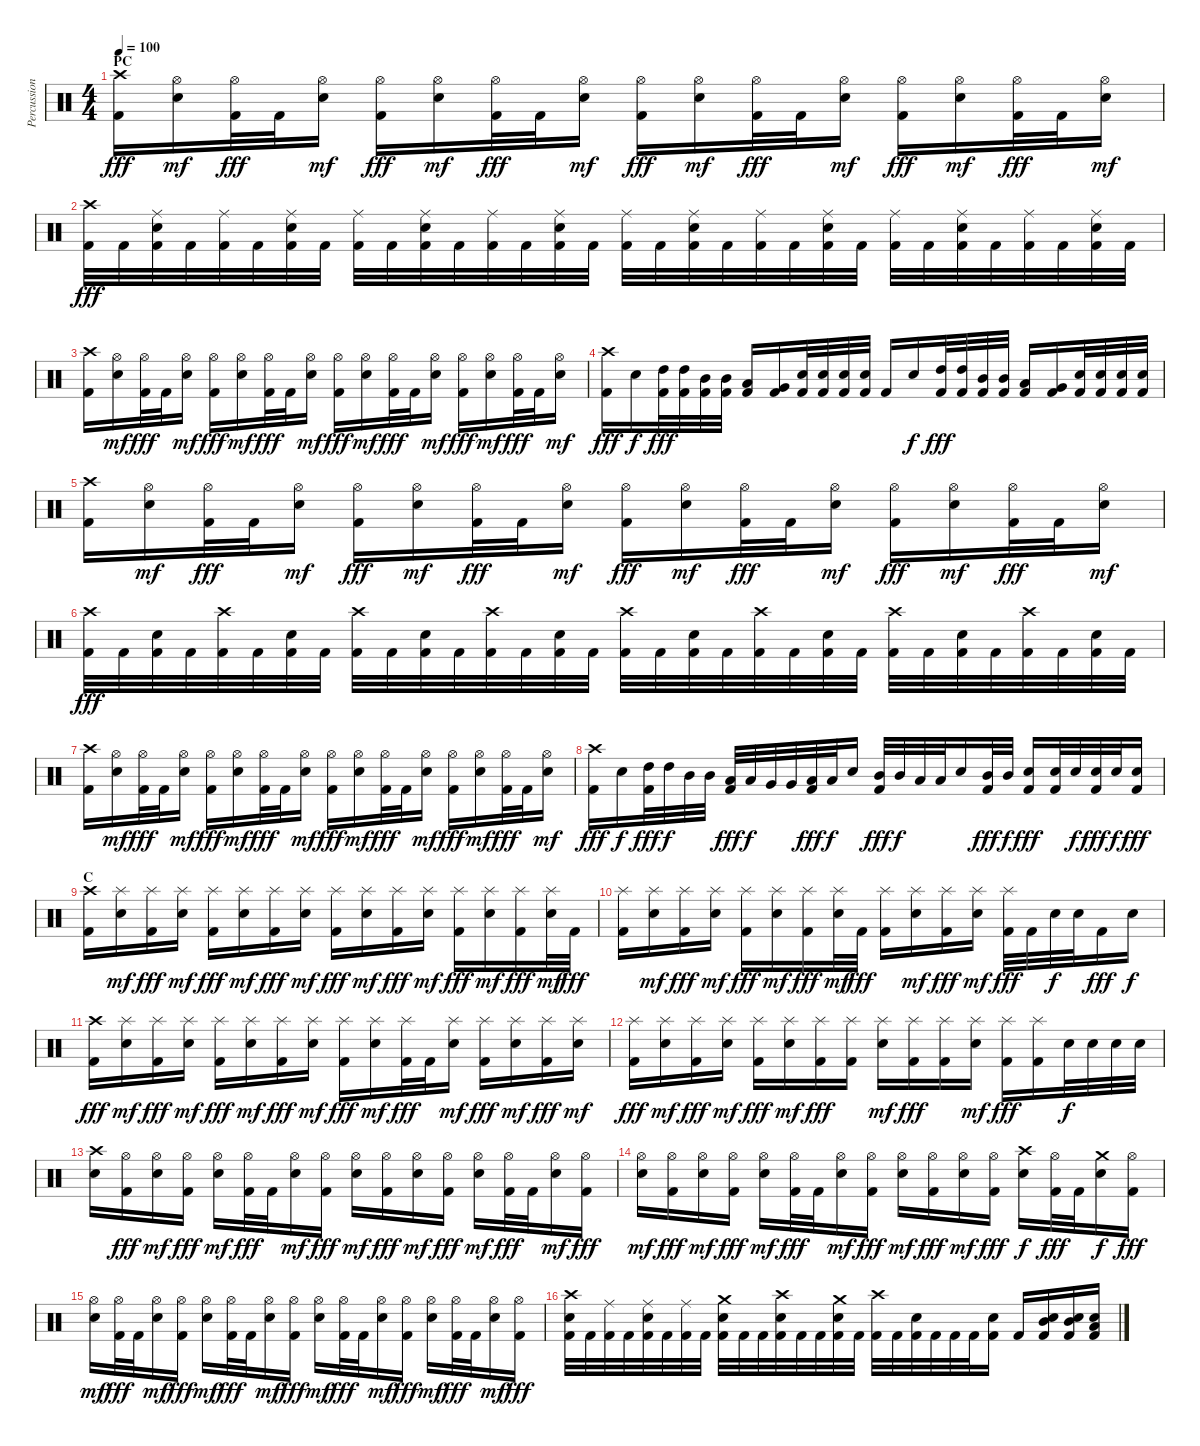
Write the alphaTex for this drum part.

\track ("Percussion" "Percussion") {instrument percussion}
\staff {score}
\articulation defaults
\ts (4 4)
\section ("" "PC")
\tempo 100
\clef neutral
\ks c
("Crash high (hit)" "Kick (hit) 2").16{dy fff} ("Hi-Hat (open)" "Snare (hit) 2").16{dy mf} ("Hi-Hat (open)" "Kick (hit) 2").32{dy fff} "Kick (hit) 2".32 ("Hi-Hat (open)" "Snare (hit) 2").16{dy mf} ("Hi-Hat (open)" "Kick (hit) 2").16{dy fff} ("Hi-Hat (open)" "Snare (hit) 2").16{dy mf} ("Hi-Hat (open)" "Kick (hit) 2").32{dy fff} "Kick (hit) 2".32 ("Hi-Hat (open)" "Snare (hit) 2").16{dy mf} ("Hi-Hat (open)" "Kick (hit) 2").16{dy fff} ("Hi-Hat (open)" "Snare (hit) 2").16{dy mf} ("Hi-Hat (open)" "Kick (hit) 2").32{dy fff} "Kick (hit) 2".32 ("Hi-Hat (open)" "Snare (hit) 2").16{dy mf} ("Hi-Hat (open)" "Kick (hit) 2").16{dy fff} ("Hi-Hat (open)" "Snare (hit) 2").16{dy mf} ("Hi-Hat (open)" "Kick (hit) 2").32{dy fff} "Kick (hit) 2".32 ("Hi-Hat (open)" "Snare (hit) 2").16{dy mf} |
("Crash high (hit)" "Kick (hit) 2").32{dy fff} "Kick (hit) 2".32 ("Ride (middle)" "Snare (hit) 2" "Kick (hit) 2").32 "Kick (hit) 2".32 ("Ride (middle)" "Kick (hit) 2").32 "Kick (hit) 2".32 ("Ride (middle)" "Snare (hit) 2" "Kick (hit) 2").32 "Kick (hit) 2".32 ("Ride (middle)" "Kick (hit) 2").32 "Kick (hit) 2".32 ("Ride (middle)" "Snare (hit) 2" "Kick (hit) 2").32 "Kick (hit) 2".32 ("Ride (middle)" "Kick (hit) 2").32 "Kick (hit) 2".32 ("Ride (middle)" "Snare (hit) 2" "Kick (hit) 2").32 "Kick (hit) 2".32 ("Ride (middle)" "Kick (hit) 2").32 "Kick (hit) 2".32 ("Ride (middle)" "Snare (hit) 2" "Kick (hit) 2").32 "Kick (hit) 2".32 ("Ride (middle)" "Kick (hit) 2").32 "Kick (hit) 2".32 ("Ride (middle)" "Snare (hit) 2" "Kick (hit) 2").32 "Kick (hit) 2".32 ("Ride (middle)" "Kick (hit) 2").32 "Kick (hit) 2".32 ("Ride (middle)" "Snare (hit) 2" "Kick (hit) 2").32 "Kick (hit) 2".32 ("Ride (middle)" "Kick (hit) 2").32 "Kick (hit) 2".32 ("Ride (middle)" "Snare (hit) 2" "Kick (hit) 2").32 "Kick (hit) 2".32 |
("Crash high (hit)" "Kick (hit) 2").16 ("Hi-Hat (open)" "Snare (hit) 2").16{dy mf} ("Hi-Hat (open)" "Kick (hit) 2").32{dy fff} "Kick (hit) 2".32 ("Hi-Hat (open)" "Snare (hit) 2").16{dy mf} ("Hi-Hat (open)" "Kick (hit) 2").16{dy fff} ("Hi-Hat (open)" "Snare (hit) 2").16{dy mf} ("Hi-Hat (open)" "Kick (hit) 2").32{dy fff} "Kick (hit) 2".32 ("Hi-Hat (open)" "Snare (hit) 2").16{dy mf} ("Hi-Hat (open)" "Kick (hit) 2").16{dy fff} ("Hi-Hat (open)" "Snare (hit) 2").16{dy mf} ("Hi-Hat (open)" "Kick (hit) 2").32{dy fff} "Kick (hit) 2".32 ("Hi-Hat (open)" "Snare (hit) 2").16{dy mf} ("Hi-Hat (open)" "Kick (hit) 2").16{dy fff} ("Hi-Hat (open)" "Snare (hit) 2").16{dy mf} ("Hi-Hat (open)" "Kick (hit) 2").32{dy fff} "Kick (hit) 2".32 ("Hi-Hat (open)" "Snare (hit) 2").16{dy mf} |
("Crash high (hit)" "Kick (hit) 2").16{dy fff} "Snare (hit) 2".16{dy f} ("High Tom (hit)" "Kick (hit) 2").32{dy fff} ("High Tom (hit)" "Kick (hit) 2").32 ("Mid Tom (hit)" "Kick (hit) 2").32 ("Mid Tom (hit)" "Kick (hit) 2").32 ("Low Tom (hit)" "Kick (hit) 2").16 ("Very Low Tom (hit)" "Kick (hit) 2").16 ("Snare (hit) 2" "Kick (hit) 2").32 ("Snare (hit) 2" "Kick (hit) 2").32 ("Snare (hit) 2" "Kick (hit) 2").32 ("Snare (hit) 2" "Kick (hit) 2").32 "Kick (hit) 2".16 "Snare (hit) 2".16{dy f} ("High Tom (hit)" "Kick (hit) 2").32{dy fff} ("High Tom (hit)" "Kick (hit) 2").32 ("Mid Tom (hit)" "Kick (hit) 2").32 ("Mid Tom (hit)" "Kick (hit) 2").32 ("Low Tom (hit)" "Kick (hit) 2").16 ("Very Low Tom (hit)" "Kick (hit) 2").16 ("Snare (hit) 2" "Kick (hit) 2").32 ("Snare (hit) 2" "Kick (hit) 2").32 ("Snare (hit) 2" "Kick (hit) 2").32 ("Snare (hit) 2" "Kick (hit) 2").32 |
("Crash high (hit)" "Kick (hit) 2").16 ("Hi-Hat (open)" "Snare (hit) 2").16{dy mf} ("Hi-Hat (open)" "Kick (hit) 2").32{dy fff} "Kick (hit) 2".32 ("Hi-Hat (open)" "Snare (hit) 2").16{dy mf} ("Hi-Hat (open)" "Kick (hit) 2").16{dy fff} ("Hi-Hat (open)" "Snare (hit) 2").16{dy mf} ("Hi-Hat (open)" "Kick (hit) 2").32{dy fff} "Kick (hit) 2".32 ("Hi-Hat (open)" "Snare (hit) 2").16{dy mf} ("Hi-Hat (open)" "Kick (hit) 2").16{dy fff} ("Hi-Hat (open)" "Snare (hit) 2").16{dy mf} ("Hi-Hat (open)" "Kick (hit) 2").32{dy fff} "Kick (hit) 2".32 ("Hi-Hat (open)" "Snare (hit) 2").16{dy mf} ("Hi-Hat (open)" "Kick (hit) 2").16{dy fff} ("Hi-Hat (open)" "Snare (hit) 2").16{dy mf} ("Hi-Hat (open)" "Kick (hit) 2").32{dy fff} "Kick (hit) 2".32 ("Hi-Hat (open)" "Snare (hit) 2").16{dy mf} |
("Crash high (hit)" "Kick (hit) 2").32{dy fff} "Kick (hit) 2".32 ("Snare (hit) 2" "Kick (hit) 2").32 "Kick (hit) 2".32 ("Crash high (hit)" "Kick (hit) 2").32 "Kick (hit) 2".32 ("Snare (hit) 2" "Kick (hit) 2").32 "Kick (hit) 2".32 ("Crash high (hit)" "Kick (hit) 2").32 "Kick (hit) 2".32 ("Snare (hit) 2" "Kick (hit) 2").32 "Kick (hit) 2".32 ("Crash high (hit)" "Kick (hit) 2").32 "Kick (hit) 2".32 ("Snare (hit) 2" "Kick (hit) 2").32 "Kick (hit) 2".32 ("Crash high (hit)" "Kick (hit) 2").32 "Kick (hit) 2".32 ("Snare (hit) 2" "Kick (hit) 2").32 "Kick (hit) 2".32 ("Crash high (hit)" "Kick (hit) 2").32 "Kick (hit) 2".32 ("Snare (hit) 2" "Kick (hit) 2").32 "Kick (hit) 2".32 ("Crash high (hit)" "Kick (hit) 2").32 "Kick (hit) 2".32 ("Snare (hit) 2" "Kick (hit) 2").32 "Kick (hit) 2".32 ("Crash high (hit)" "Kick (hit) 2").32 "Kick (hit) 2".32 ("Snare (hit) 2" "Kick (hit) 2").32 "Kick (hit) 2".32 |
("Crash high (hit)" "Kick (hit) 2").16 ("Hi-Hat (open)" "Snare (hit) 2").16{dy mf} ("Hi-Hat (open)" "Kick (hit) 2").32{dy fff} "Kick (hit) 2".32 ("Hi-Hat (open)" "Snare (hit) 2").16{dy mf} ("Hi-Hat (open)" "Kick (hit) 2").16{dy fff} ("Hi-Hat (open)" "Snare (hit) 2").16{dy mf} ("Hi-Hat (open)" "Kick (hit) 2").32{dy fff} "Kick (hit) 2".32 ("Hi-Hat (open)" "Snare (hit) 2").16{dy mf} ("Hi-Hat (open)" "Kick (hit) 2").16{dy fff} ("Hi-Hat (open)" "Snare (hit) 2").16{dy mf} ("Hi-Hat (open)" "Kick (hit) 2").32{dy fff} "Kick (hit) 2".32 ("Hi-Hat (open)" "Snare (hit) 2").16{dy mf} ("Hi-Hat (open)" "Kick (hit) 2").16{dy fff} ("Hi-Hat (open)" "Snare (hit) 2").16{dy mf} ("Hi-Hat (open)" "Kick (hit) 2").32{dy fff} "Kick (hit) 2".32 ("Hi-Hat (open)" "Snare (hit) 2").16{dy mf} |
("Crash high (hit)" "Kick (hit) 2").16{dy fff} "Snare (hit) 2".16{dy f} ("High Tom (hit)" "Kick (hit) 2").32{dy fff} "High Tom (hit)".32{dy f} "Mid Tom (hit)".32 "Mid Tom (hit)".32 ("Low Tom (hit)" "Kick (hit) 2").32{dy fff} "Low Tom (hit)".32{dy f} "Very Low Tom (hit)".32 "Very Low Tom (hit)".32 ("Low Floor Tom (hit)" "Kick (hit) 2").32{dy fff} "Low Floor Tom (hit)".32{dy f} "Snare (hit) 2".16 ("Mid Tom (hit)" "Kick (hit) 2").32{dy fff} "Mid Tom (hit)".32{dy f} "Low Tom (hit)".32 "Low Tom (hit)".32 "Snare (hit) 2".16 ("Mid Tom (hit)" "Kick (hit) 2").32{dy fff} "Mid Tom (hit)".32{dy f} ("Snare (hit) 2" "Kick (hit) 2").16{dy fff} ("Snare (hit) 2" "Kick (hit) 2").32 "Snare (hit) 2".32{dy f} ("Snare (hit) 2" "Kick (hit) 2").32{dy fff} "Snare (hit) 2".32{dy f} ("Snare (hit) 2" "Kick (hit) 2").16{dy fff} |
\section ("" "C")
("Crash high (hit)" "Kick (hit) 2").16 ("Splash (hit)" "Snare (hit) 2").16{dy mf} ("Splash (hit)" "Kick (hit) 2").16{dy fff} ("Splash (hit)" "Snare (hit) 2").16{dy mf} ("Splash (hit)" "Kick (hit) 2").16{dy fff} ("Splash (hit)" "Snare (hit) 2").16{dy mf} ("Splash (hit)" "Kick (hit) 2").16{dy fff} ("Splash (hit)" "Snare (hit) 2").16{dy mf} ("Splash (hit)" "Kick (hit) 2").16{dy fff} ("Splash (hit)" "Snare (hit) 2").16{dy mf} ("Splash (hit)" "Kick (hit) 2").16{dy fff} ("Splash (hit)" "Snare (hit) 2").16{dy mf} ("Splash (hit)" "Kick (hit) 2").16{dy fff} ("Splash (hit)" "Snare (hit) 2").16{dy mf} ("Splash (hit)" "Kick (hit) 2").16{dy fff} ("Splash (hit)" "Snare (hit) 2").32{dy mf} "Kick (hit) 2".32{dy fff} |
("Splash (hit)" "Kick (hit) 2").16 ("Splash (hit)" "Snare (hit) 2").16{dy mf} ("Splash (hit)" "Kick (hit) 2").16{dy fff} ("Splash (hit)" "Snare (hit) 2").16{dy mf} ("Splash (hit)" "Kick (hit) 2").16{dy fff} ("Splash (hit)" "Snare (hit) 2").16{dy mf} ("Splash (hit)" "Kick (hit) 2").16{dy fff} ("Splash (hit)" "Snare (hit) 2").32{dy mf} "Kick (hit) 2".32{dy fff} ("Splash (hit)" "Kick (hit) 2").16 ("Splash (hit)" "Snare (hit) 2").16{dy mf} ("Splash (hit)" "Kick (hit) 2").16{dy fff} ("Splash (hit)" "Snare (hit) 2").16{dy mf} ("Splash (hit)" "Kick (hit) 2").32{dy fff} "Kick (hit) 2".32 "Snare (hit) 2".32{dy f} "Snare (hit) 2".32 "Kick (hit) 2".16{dy fff} "Snare (hit) 2".16{dy f} |
("Crash high (hit)" "Kick (hit) 2").16{dy fff} ("Splash (hit)" "Snare (hit) 2").16{dy mf} ("Splash (hit)" "Kick (hit) 2").16{dy fff} ("Splash (hit)" "Snare (hit) 2").16{dy mf} ("Splash (hit)" "Kick (hit) 2").16{dy fff} ("Splash (hit)" "Snare (hit) 2").16{dy mf} ("Splash (hit)" "Kick (hit) 2").16{dy fff} ("Splash (hit)" "Snare (hit) 2").16{dy mf} ("Splash (hit)" "Kick (hit) 2").16{dy fff} ("Splash (hit)" "Snare (hit) 2").16{dy mf} ("Splash (hit)" "Kick (hit) 2").32{dy fff} "Kick (hit) 2".32 ("Splash (hit)" "Snare (hit) 2").16{dy mf} ("Splash (hit)" "Kick (hit) 2").16{dy fff} ("Splash (hit)" "Snare (hit) 2").16{dy mf} ("Splash (hit)" "Kick (hit) 2").16{dy fff} ("Splash (hit)" "Snare (hit) 2").16{dy mf} |
("Splash (hit)" "Kick (hit) 2").16{dy fff} ("Splash (hit)" "Snare (hit) 2").16{dy mf} ("Splash (hit)" "Kick (hit) 2").16{dy fff} ("Splash (hit)" "Snare (hit) 2").16{dy mf} ("Splash (hit)" "Kick (hit) 2").16{dy fff} ("Splash (hit)" "Snare (hit) 2").16{dy mf} ("Splash (hit)" "Kick (hit) 2").16{dy fff} ("Splash (hit)" "Kick (hit) 2").16 ("Splash (hit)" "Snare (hit) 2").16{dy mf} ("Splash (hit)" "Kick (hit) 2").16{dy fff} ("Splash (hit)" "Kick (hit) 2").16 ("Splash (hit)" "Snare (hit) 2").16{dy mf} ("Splash (hit)" "Kick (hit) 2").16{dy fff} ("Splash (hit)" "Kick (hit) 2").16 "Snare (hit) 2".32{dy f} "Snare (hit) 2".32 "Snare (hit) 2".32 "Snare (hit) 2".32 |
("Crash high (hit)" "Snare (hit) 2").16 ("Hi-Hat (open)" "Kick (hit) 2").16{dy fff} ("Hi-Hat (open)" "Snare (hit) 2").16{dy mf} ("Hi-Hat (open)" "Kick (hit) 2").16{dy fff} ("Hi-Hat (open)" "Snare (hit) 2").16{dy mf} ("Hi-Hat (open)" "Kick (hit) 2").32{dy fff} "Kick (hit) 2".32 ("Hi-Hat (open)" "Snare (hit) 2").16{dy mf} ("Hi-Hat (open)" "Kick (hit) 2").16{dy fff} ("Hi-Hat (open)" "Snare (hit) 2").16{dy mf} ("Hi-Hat (open)" "Kick (hit) 2").16{dy fff} ("Hi-Hat (open)" "Snare (hit) 2").16{dy mf} ("Hi-Hat (open)" "Kick (hit) 2").16{dy fff} ("Hi-Hat (open)" "Snare (hit) 2").16{dy mf} ("Hi-Hat (open)" "Kick (hit) 2").32{dy fff} "Kick (hit) 2".32 ("Hi-Hat (open)" "Snare (hit) 2").16{dy mf} ("Hi-Hat (open)" "Kick (hit) 2").16{dy fff} |
("Hi-Hat (open)" "Snare (hit) 2").16{dy mf} ("Hi-Hat (open)" "Kick (hit) 2").16{dy fff} ("Hi-Hat (open)" "Snare (hit) 2").16{dy mf} ("Hi-Hat (open)" "Kick (hit) 2").16{dy fff} ("Hi-Hat (open)" "Snare (hit) 2").16{dy mf} ("Hi-Hat (open)" "Kick (hit) 2").32{dy fff} "Kick (hit) 2".32 ("Hi-Hat (open)" "Snare (hit) 2").16{dy mf} ("Hi-Hat (open)" "Kick (hit) 2").16{dy fff} ("Hi-Hat (open)" "Snare (hit) 2").16{dy mf} ("Hi-Hat (open)" "Kick (hit) 2").16{dy fff} ("Hi-Hat (open)" "Snare (hit) 2").16{dy mf} ("Hi-Hat (open)" "Kick (hit) 2").16{dy fff} ("Crash high (hit)" "Snare (hit) 2").16{dy f} ("Hi-Hat (open)" "Kick (hit) 2").32{dy fff} "Kick (hit) 2".32 ("Crash medium (hit)" "Snare (hit) 2").16{dy f} ("Hi-Hat (open)" "Kick (hit) 2").16{dy fff} |
("Hi-Hat (open)" "Snare (hit) 2").16{dy mf} ("Hi-Hat (open)" "Kick (hit) 2").32{dy fff} "Kick (hit) 2".32 ("Hi-Hat (open)" "Snare (hit) 2").16{dy mf} ("Hi-Hat (open)" "Kick (hit) 2").16{dy fff} ("Hi-Hat (open)" "Snare (hit) 2").16{dy mf} ("Hi-Hat (open)" "Kick (hit) 2").32{dy fff} "Kick (hit) 2".32 ("Hi-Hat (open)" "Snare (hit) 2").16{dy mf} ("Hi-Hat (open)" "Kick (hit) 2").16{dy fff} ("Hi-Hat (open)" "Snare (hit) 2").16{dy mf} ("Hi-Hat (open)" "Kick (hit) 2").32{dy fff} "Kick (hit) 2".32 ("Hi-Hat (open)" "Snare (hit) 2").16{dy mf} ("Hi-Hat (open)" "Kick (hit) 2").16{dy fff} ("Hi-Hat (open)" "Snare (hit) 2").16{dy mf} ("Hi-Hat (open)" "Kick (hit) 2").32{dy fff} "Kick (hit) 2".32 ("Hi-Hat (open)" "Snare (hit) 2").16{dy mf} ("Hi-Hat (open)" "Kick (hit) 2").16{dy fff} |
("Crash high (hit)" "Snare (hit) 2" "Kick (hit) 2").32 "Kick (hit) 2".32 ("Ride (middle)" "Kick (hit) 2").32 "Kick (hit) 2".32 ("Ride (middle)" "Snare (hit) 2" "Kick (hit) 2").32 "Kick (hit) 2".32 ("Ride (middle)" "Kick (hit) 2").32 "Kick (hit) 2".32 ("Crash medium (hit)" "Snare (hit) 2" "Kick (hit) 2").32 "Kick (hit) 2".32 "Kick (hit) 2".32 ("Crash high (hit)" "Snare (hit) 2" "Kick (hit) 2").32 "Kick (hit) 2".32 "Kick (hit) 2".32 ("Crash medium (hit)" "Snare (hit) 2" "Kick (hit) 2").32 "Kick (hit) 2".32 ("Crash high (hit)" "Kick (hit) 2").32 "Kick (hit) 2".32 ("Snare (hit) 2" "Kick (hit) 2").32 "Kick (hit) 2".32 "Kick (hit) 2".32 "Kick (hit) 2".32 ("Snare (hit) 2" "Kick (hit) 2").16 "Kick (hit) 2".16 ("Mid Tom (hit)" "Snare (hit) 2" "Kick (hit) 2").16 ("Mid Tom (hit)" "Snare (hit) 2" "Kick (hit) 2").16 ("Low Tom (hit)" "Snare (hit) 2" "Kick (hit) 2").16
